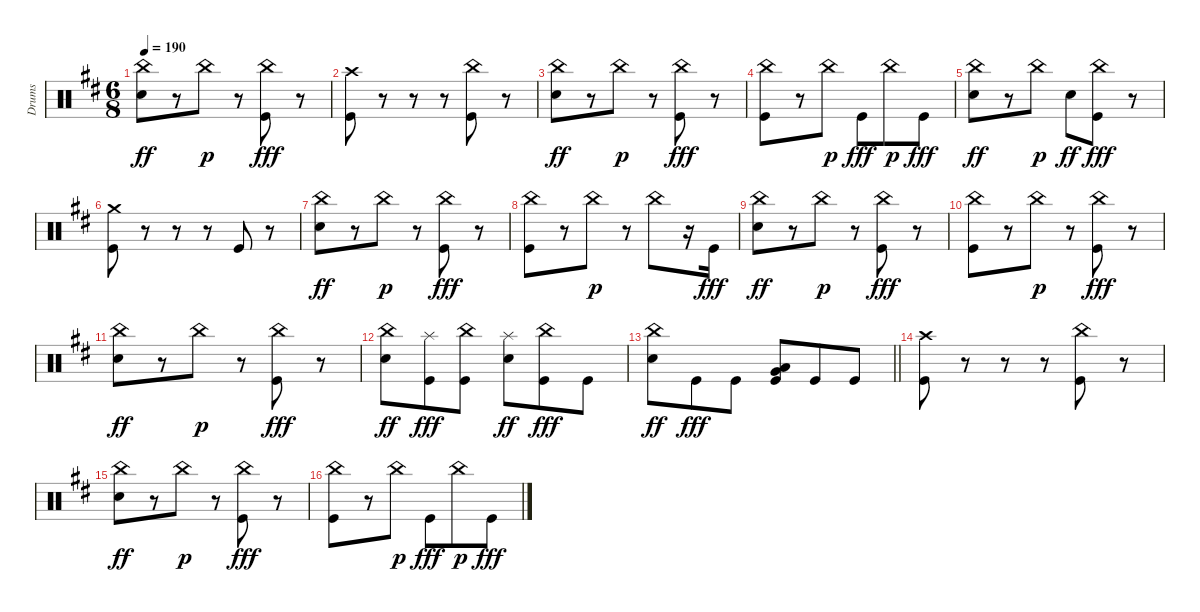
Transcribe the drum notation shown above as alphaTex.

\track ("Drums" "Drums") {instrument percussion}
\staff {score}
\articulation defaults
\ts (6 8)
\tempo 190
\clef neutral
\ks bminor
("China (hit)" "Snare (hit) 2").8{dy ff} r.8 "China (hit)".8{dy p} r.8 ("China (hit)" "Kick (hit)").8{dy fff} r.8 |
("Crash high (hit)" "Kick (hit)").8 r.8 r.8 r.8 ("China (hit)" "Kick (hit)").8 r.8 |
("China (hit)" "Snare (hit) 2").8{dy ff} r.8 "China (hit)".8{dy p} r.8 ("China (hit)" "Kick (hit)").8{dy fff} r.8 |
("China (hit)" "Kick (hit)").8 r.8 "China (hit)".8{dy p} "Kick (hit)".8{dy fff} "China (hit)".8{dy p} "Kick (hit)".8{dy fff} |
("China (hit)" "Snare (hit) 2").8{dy ff} r.8 "China (hit)".8{dy p} "Snare (hit) 2".8{dy ff} ("China (hit)" "Kick (hit)").8{dy fff} r.8 |
("Crash medium (hit)" "Kick (hit)").8 r.8 r.8 r.8 "Kick (hit)".8 r.8 |
("China (hit)" "Snare (hit) 2").8{dy ff} r.8 "China (hit)".8{dy p} r.8 ("China (hit)" "Kick (hit)").8{dy fff} r.8 |
("China (hit)" "Kick (hit)").8 r.8 "China (hit)".8{dy p} r.8 "China (hit)".8 r.16 "Kick (hit)".16{dy fff} |
("China (hit)" "Snare (hit) 2").8{dy ff} r.8 "China (hit)".8{dy p} r.8 ("China (hit)" "Kick (hit)").8{dy fff} r.8 |
("China (hit)" "Kick (hit)").8 r.8 "China (hit)".8{dy p} r.8 ("China (hit)" "Kick (hit)").8{dy fff} r.8 |
("China (hit)" "Snare (hit) 2").8{dy ff} r.8 "China (hit)".8{dy p} r.8 ("China (hit)" "Kick (hit)").8{dy fff} r.8 |
("China (hit)" "Snare (hit) 2").8{dy ff} ("Splash (hit)" "Kick (hit)").8{dy fff} ("China (hit)" "Kick (hit)").8 ("Splash (hit)" "Snare (hit) 2").8{dy ff} ("China (hit)" "Kick (hit)").8{dy fff} "Kick (hit)".8 |
\barLineRight lightlight
("China (hit)" "Snare (hit) 2").8{dy ff} "Kick (hit)".8{dy fff} "Kick (hit)".8 ("Very Low Tom (hit)" "Low Floor Tom (hit)" "Kick (hit)").8 "Kick (hit)".8 "Kick (hit)".8 |
("Crash high (hit)" "Kick (hit)").8 r.8 r.8 r.8 ("China (hit)" "Kick (hit)").8 r.8 |
("China (hit)" "Snare (hit) 2").8{dy ff} r.8 "China (hit)".8{dy p} r.8 ("China (hit)" "Kick (hit)").8{dy fff} r.8 |
("China (hit)" "Kick (hit)").8 r.8 "China (hit)".8{dy p} "Kick (hit)".8{dy fff} "China (hit)".8{dy p} "Kick (hit)".8{dy fff}
